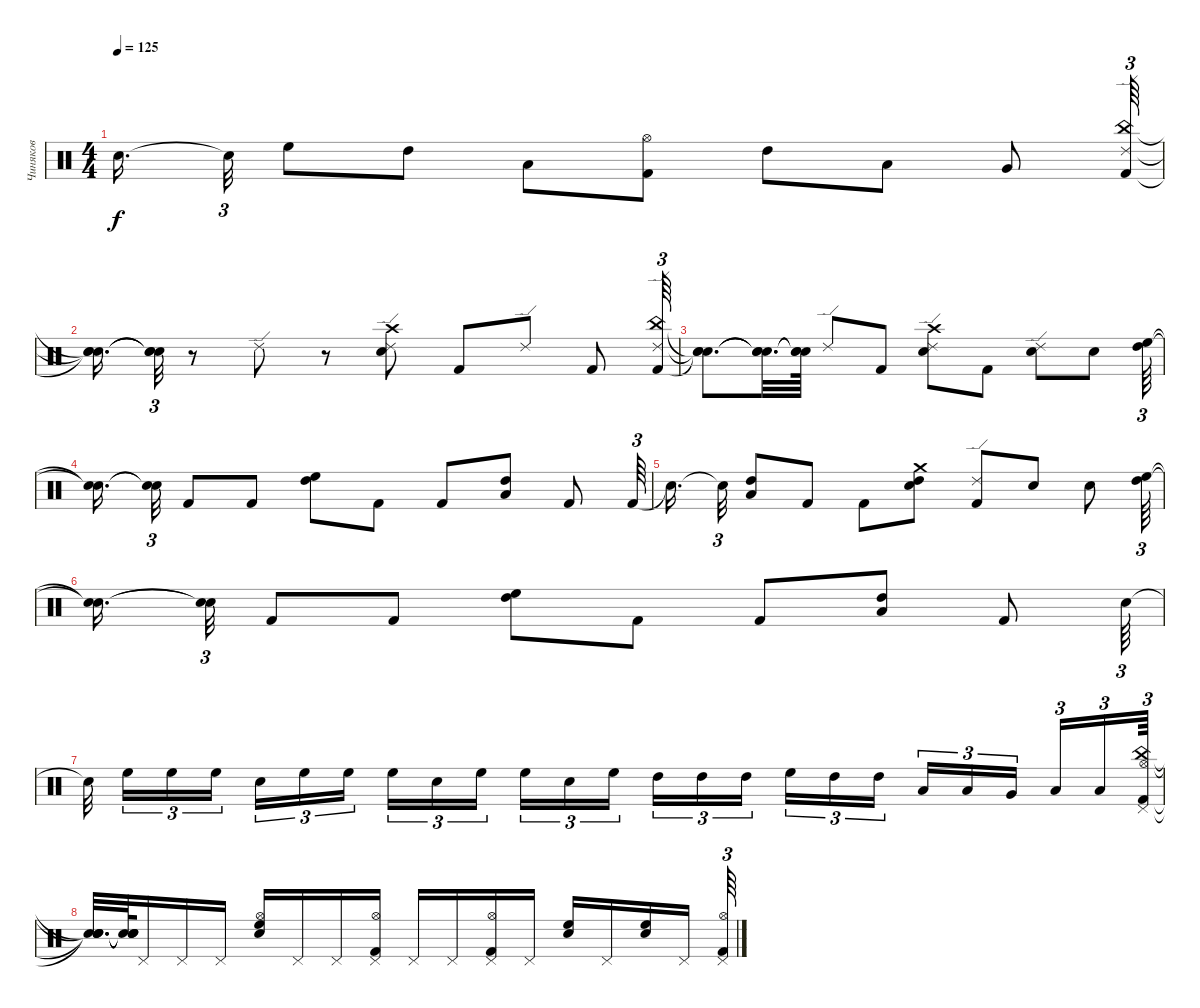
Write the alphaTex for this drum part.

\track ("Чиняков" "Чиняков") {instrument percussion}
\staff {score}
\articulation defaults
\ts (4 4)
\tempo 125
\clef neutral
\ks c "Snare (hit)"{t}.16{d dy f beam splitsecondary} "Snare (hit)"{t}.32{tu (3 2)} "High Floor Tom (hit)".8 "High Tom (hit)".8 "Low Tom (hit)".8
("Kick (hit) 2" "Hi-Hat (open)").8 "High Tom (hit)".8 "Low Tom (hit)".8 "Very Low Tom (hit)".8 ("Kick (hit) 2" "China (hit)" "Ride (edge) 2").64{tu (3 2)} |
("Snare (hit)"{t} "Snare (hit)"{t} "Snare (hit)"{t}).16{d} ("Snare (hit)"{t} "Snare (hit)"{t} "Snare (hit)"{t}).32{tu (3 2)} r.8 "Ride (edge) 2".8 r.8 ("Ride (edge) 2" "Electric Snare (hit)" "Crash high (hit)").8 "Kick (hit) 2".8 "Ride (edge) 2".8 "Kick (hit) 2".8 ("Kick (hit) 2" "China (hit)" "Ride (edge) 2").64{tu (3 2)} |
("Snare (hit)"{t} "Snare (hit)"{t} "Snare (hit)"{t}).8{d} ("Snare (hit)"{t} "Snare (hit)"{t} "Snare (hit)"{t}).32{d} ("Snare (hit)"{t} "Snare (hit)"{t} "Snare (hit)"{t}).64 "Ride (edge) 2".8 "Kick (hit) 2".8 ("Electric Snare (hit)" "Crash high (hit)" "Ride (edge) 2").8 "Kick (hit) 2".8 ("Electric Snare (hit)" "Ride (edge) 2").8 "Electric Snare (hit)".8 ("High Floor Tom (hit)" "High Tom (hit)").64{tu (3 2)} |
("Snare (hit)"{t} "Snare (hit)"{t}).16{d beam splitsecondary} ("Snare (hit)"{t} "Snare (hit)"{t}).32{tu (3 2)} "Kick (hit) 2".8 "Kick (hit) 2".8 ("High Floor Tom (hit)" "High Tom (hit)").8 "Kick (hit) 2".8 "Kick (hit) 2".8 ("High Tom (hit)" "Low Tom (hit)").8 "Kick (hit) 2".8 "Kick (hit) 2".64{tu (3 2)} |
"Snare (hit)"{t}.16{d beam splitsecondary} "Snare (hit)"{t}.32{tu (3 2)} ("High Tom (hit)" "Low Floor Tom (hit)").8 "Kick (hit) 2".8 "Kick (hit) 2".8 ("Electric Snare (hit)" "Crash medium (hit)" "High Tom (hit)").8 ("Kick (hit) 2" "Ride (edge) 2").8 "Electric Snare (hit)".8 "Electric Snare (hit)".8 ("High Floor Tom (hit)" "High Tom (hit)").64{tu (3 2)} |
("Snare (hit)"{t} "Snare (hit)"{t}).16{d beam splitsecondary} ("Snare (hit)"{t} "Snare (hit)"{t}).32{tu (3 2)} "Kick (hit) 2".8 "Kick (hit) 2".8 ("High Floor Tom (hit)" "High Tom (hit)").8 "Kick (hit) 2".8 "Kick (hit) 2".8 ("High Tom (hit)" "Low Tom (hit)").8 "Kick (hit) 2".8 "Electric Snare (hit)".64{tu (3 2)} |
"Snare (hit)"{t}.32{beam splitsecondary} "High Floor Tom (hit)".16{tu (3 2)} "High Floor Tom (hit)".16{tu (3 2)} "High Floor Tom (hit)".16{tu (3 2) beam splitsecondary} "Electric Snare (hit)".16{tu (3 2)} "High Floor Tom (hit)".16{tu (3 2)} "High Floor Tom (hit)".16{tu (3 2)} "High Floor Tom (hit)".16{tu (3 2)} "Electric Snare (hit)".16{tu (3 2)} "High Floor Tom (hit)".16{tu (3 2) beam splitsecondary} "High Floor Tom (hit)".16{tu (3 2)} "Electric Snare (hit)".16{tu (3 2)} "High Floor Tom (hit)".16{tu (3 2)} "High Tom (hit)".16{tu (3 2)} "High Tom (hit)".16{tu (3 2)} "High Tom (hit)".16{tu (3 2) beam splitsecondary} "High Floor Tom (hit)".16{tu (3 2)} "High Tom (hit)".16{tu (3 2)} "High Tom (hit)".16{tu (3 2)} "Low Tom (hit)".16{tu (3 2)} "Low Tom (hit)".16{tu (3 2)} "Very Low Tom (hit)".16{tu (3 2) beam splitsecondary} "Low Floor Tom (hit)".16{tu (3 2)} "Low Floor Tom (hit)".16{tu (3 2)} ("Pedal Hi-Hat (hit)" "Kick (hit) 2" "Hi-Hat (open)" "China (hit)").64{tu (3 2)} |
("Snare (hit)"{t} "Snare (hit)"{t} "Snare (hit)"{t} "Snare (hit)"{t}).32{d} ("Snare (hit)"{t} "Snare (hit)"{t} "Snare (hit)"{t} "Snare (hit)"{t}).64 "Pedal Hi-Hat (hit)".16 "Pedal Hi-Hat (hit)".16 "Pedal Hi-Hat (hit)".16 ("Electric Snare (hit)" "High Floor Tom (hit)" "Hi-Hat (open)").16 "Pedal Hi-Hat (hit)".16 "Pedal Hi-Hat (hit)".16 ("Pedal Hi-Hat (hit)" "Kick (hit) 2" "Hi-Hat (open)").16 "Pedal Hi-Hat (hit)".16 "Pedal Hi-Hat (hit)".16 ("Pedal Hi-Hat (hit)" "Kick (hit) 2" "Hi-Hat (open)").16 "Pedal Hi-Hat (hit)".16 ("High Floor Tom (hit)" "Electric Snare (hit)").16 "Pedal Hi-Hat (hit)".16 ("High Floor Tom (hit)" "Electric Snare (hit)").16 "Pedal Hi-Hat (hit)".16 ("Pedal Hi-Hat (hit)" "Kick (hit) 2" "Hi-Hat (open)").64{tu (3 2)}
